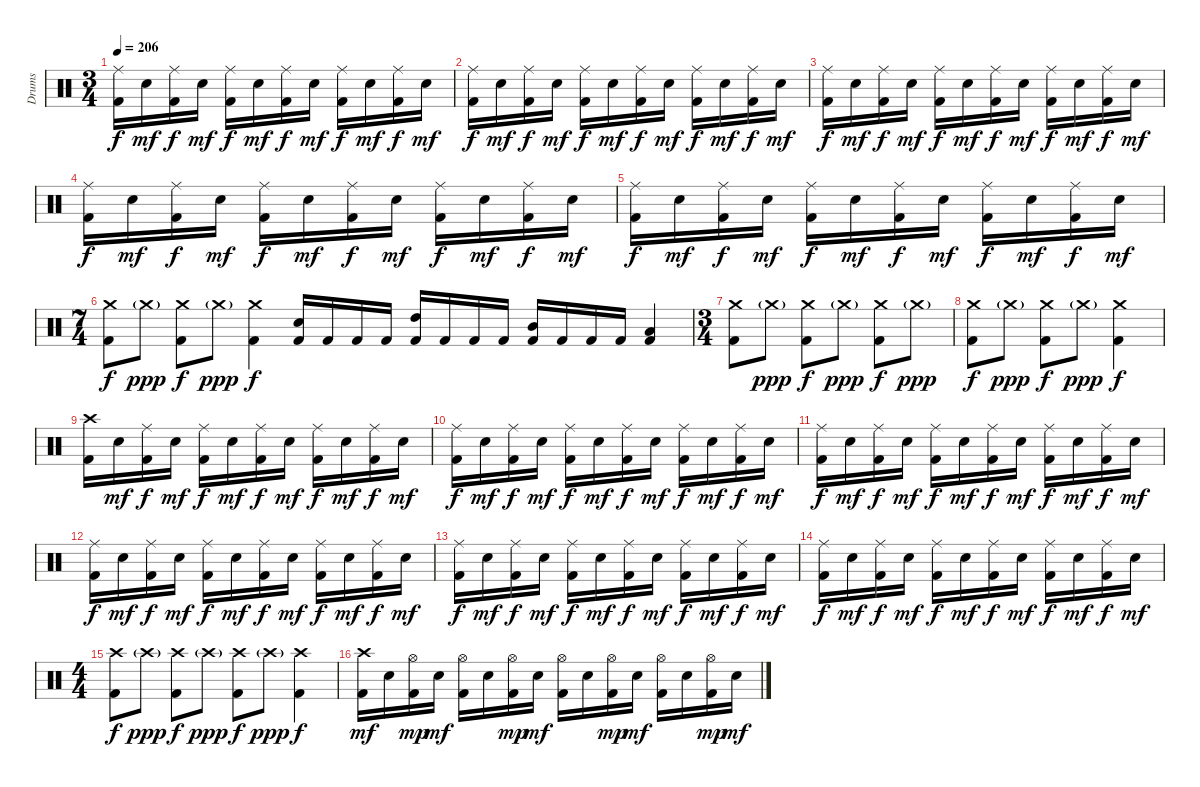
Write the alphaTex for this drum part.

\track ("Drums" "Drums") {instrument percussion}
\staff {score}
\articulation defaults
\ts (3 4)
\tempo 206
\clef neutral
\ks c
("Ride (middle)" "Kick (hit) 2").16{dy f} "Electric Snare (hit)".16{dy mf} ("Ride (middle)" "Kick (hit) 2").16{dy f} "Electric Snare (hit)".16{dy mf} ("Ride (middle)" "Kick (hit) 2").16{dy f} "Electric Snare (hit)".16{dy mf} ("Ride (middle)" "Kick (hit) 2").16{dy f} "Electric Snare (hit)".16{dy mf} ("Ride (middle)" "Kick (hit) 2").16{dy f} "Electric Snare (hit)".16{dy mf} ("Ride (middle)" "Kick (hit) 2").16{dy f} "Electric Snare (hit)".16{dy mf} |
("Ride (middle)" "Kick (hit) 2").16{dy f} "Electric Snare (hit)".16{dy mf} ("Ride (middle)" "Kick (hit) 2").16{dy f} "Electric Snare (hit)".16{dy mf} ("Ride (middle)" "Kick (hit) 2").16{dy f} "Electric Snare (hit)".16{dy mf} ("Ride (middle)" "Kick (hit) 2").16{dy f} "Electric Snare (hit)".16{dy mf} ("Ride (middle)" "Kick (hit) 2").16{dy f} "Electric Snare (hit)".16{dy mf} ("Ride (middle)" "Kick (hit) 2").16{dy f} "Electric Snare (hit)".16{dy mf} |
("Ride (middle)" "Kick (hit) 2").16{dy f} "Electric Snare (hit)".16{dy mf} ("Ride (middle)" "Kick (hit) 2").16{dy f} "Electric Snare (hit)".16{dy mf} ("Ride (middle)" "Kick (hit) 2").16{dy f} "Electric Snare (hit)".16{dy mf} ("Ride (middle)" "Kick (hit) 2").16{dy f} "Electric Snare (hit)".16{dy mf} ("Ride (middle)" "Kick (hit) 2").16{dy f} "Electric Snare (hit)".16{dy mf} ("Ride (middle)" "Kick (hit) 2").16{dy f} "Electric Snare (hit)".16{dy mf} |
("Ride (middle)" "Kick (hit) 2").16{dy f} "Electric Snare (hit)".16{dy mf} ("Ride (middle)" "Kick (hit) 2").16{dy f} "Electric Snare (hit)".16{dy mf} ("Ride (middle)" "Kick (hit) 2").16{dy f} "Electric Snare (hit)".16{dy mf} ("Ride (middle)" "Kick (hit) 2").16{dy f} "Electric Snare (hit)".16{dy mf} ("Ride (middle)" "Kick (hit) 2").16{dy f} "Electric Snare (hit)".16{dy mf} ("Ride (middle)" "Kick (hit) 2").16{dy f} "Electric Snare (hit)".16{dy mf} |
("Ride (middle)" "Kick (hit) 2").16{dy f} "Electric Snare (hit)".16{dy mf} ("Ride (middle)" "Kick (hit) 2").16{dy f} "Electric Snare (hit)".16{dy mf} ("Ride (middle)" "Kick (hit) 2").16{dy f} "Electric Snare (hit)".16{dy mf} ("Ride (middle)" "Kick (hit) 2").16{dy f} "Electric Snare (hit)".16{dy mf} ("Ride (middle)" "Kick (hit) 2").16{dy f} "Electric Snare (hit)".16{dy mf} ("Ride (middle)" "Kick (hit) 2").16{dy f} "Electric Snare (hit)".16{dy mf} |
\ts (7 4)
("Crash medium (hit)" "Kick (hit) 2").8{dy f} "Crash medium (hit)"{g}.8{dy ppp} ("Crash medium (hit)" "Kick (hit) 2").8{dy f} "Crash medium (hit)"{g}.8{dy ppp} ("Crash medium (hit)" "Kick (hit) 2").4{dy f} ("Electric Snare (hit)" "Kick (hit) 2").16 "Kick (hit) 2".16 "Kick (hit) 2".16 "Kick (hit) 2".16 ("High Tom (hit)" "Kick (hit) 2").16 "Kick (hit) 2".16 "Kick (hit) 2".16 "Kick (hit) 2".16 ("Mid Tom (hit)" "Kick (hit) 2").16 "Kick (hit) 2".16 "Kick (hit) 2".16 "Kick (hit) 2".16 ("Low Tom (hit)" "Kick (hit) 2").4 |
\ts (3 4)
("Crash medium (hit)" "Kick (hit) 2").8 "Crash medium (hit)"{g}.8{dy ppp} ("Crash medium (hit)" "Kick (hit) 2").8{dy f} "Crash medium (hit)"{g}.8{dy ppp} ("Crash medium (hit)" "Kick (hit) 2").8{dy f} "Crash medium (hit)"{g}.8{dy ppp} |
("Crash medium (hit)" "Kick (hit) 2").8{dy f} "Crash medium (hit)"{g}.8{dy ppp} ("Crash medium (hit)" "Kick (hit) 2").8{dy f} "Crash medium (hit)"{g}.8{dy ppp} ("Crash medium (hit)" "Kick (hit) 2").4{dy f} |
("Crash high (hit)" "Kick (hit) 2").16 "Electric Snare (hit)".16{dy mf} ("Ride (middle)" "Kick (hit) 2").16{dy f} "Electric Snare (hit)".16{dy mf} ("Ride (middle)" "Kick (hit) 2").16{dy f} "Electric Snare (hit)".16{dy mf} ("Ride (middle)" "Kick (hit) 2").16{dy f} "Electric Snare (hit)".16{dy mf} ("Ride (middle)" "Kick (hit) 2").16{dy f} "Electric Snare (hit)".16{dy mf} ("Ride (middle)" "Kick (hit) 2").16{dy f} "Electric Snare (hit)".16{dy mf} |
("Ride (middle)" "Kick (hit) 2").16{dy f} "Electric Snare (hit)".16{dy mf} ("Ride (middle)" "Kick (hit) 2").16{dy f} "Electric Snare (hit)".16{dy mf} ("Ride (middle)" "Kick (hit) 2").16{dy f} "Electric Snare (hit)".16{dy mf} ("Ride (middle)" "Kick (hit) 2").16{dy f} "Electric Snare (hit)".16{dy mf} ("Ride (middle)" "Kick (hit) 2").16{dy f} "Electric Snare (hit)".16{dy mf} ("Ride (middle)" "Kick (hit) 2").16{dy f} "Electric Snare (hit)".16{dy mf} |
("Ride (middle)" "Kick (hit) 2").16{dy f} "Electric Snare (hit)".16{dy mf} ("Ride (middle)" "Kick (hit) 2").16{dy f} "Electric Snare (hit)".16{dy mf} ("Ride (middle)" "Kick (hit) 2").16{dy f} "Electric Snare (hit)".16{dy mf} ("Ride (middle)" "Kick (hit) 2").16{dy f} "Electric Snare (hit)".16{dy mf} ("Ride (middle)" "Kick (hit) 2").16{dy f} "Electric Snare (hit)".16{dy mf} ("Ride (middle)" "Kick (hit) 2").16{dy f} "Electric Snare (hit)".16{dy mf} |
("Ride (middle)" "Kick (hit) 2").16{dy f} "Electric Snare (hit)".16{dy mf} ("Ride (middle)" "Kick (hit) 2").16{dy f} "Electric Snare (hit)".16{dy mf} ("Ride (middle)" "Kick (hit) 2").16{dy f} "Electric Snare (hit)".16{dy mf} ("Ride (middle)" "Kick (hit) 2").16{dy f} "Electric Snare (hit)".16{dy mf} ("Ride (middle)" "Kick (hit) 2").16{dy f} "Electric Snare (hit)".16{dy mf} ("Ride (middle)" "Kick (hit) 2").16{dy f} "Electric Snare (hit)".16{dy mf} |
("Ride (middle)" "Kick (hit) 2").16{dy f} "Electric Snare (hit)".16{dy mf} ("Ride (middle)" "Kick (hit) 2").16{dy f} "Electric Snare (hit)".16{dy mf} ("Ride (middle)" "Kick (hit) 2").16{dy f} "Electric Snare (hit)".16{dy mf} ("Ride (middle)" "Kick (hit) 2").16{dy f} "Electric Snare (hit)".16{dy mf} ("Ride (middle)" "Kick (hit) 2").16{dy f} "Electric Snare (hit)".16{dy mf} ("Ride (middle)" "Kick (hit) 2").16{dy f} "Electric Snare (hit)".16{dy mf} |
("Ride (middle)" "Kick (hit) 2").16{dy f} "Electric Snare (hit)".16{dy mf} ("Ride (middle)" "Kick (hit) 2").16{dy f} "Electric Snare (hit)".16{dy mf} ("Ride (middle)" "Kick (hit) 2").16{dy f} "Electric Snare (hit)".16{dy mf} ("Ride (middle)" "Kick (hit) 2").16{dy f} "Electric Snare (hit)".16{dy mf} ("Ride (middle)" "Kick (hit) 2").16{dy f} "Electric Snare (hit)".16{dy mf} ("Ride (middle)" "Kick (hit) 2").16{dy f} "Electric Snare (hit)".16{dy mf} |
\ts (4 4)
("Crash high (hit)" "Kick (hit) 2").8{dy f} "Crash high (hit)"{g}.8{dy ppp} ("Crash high (hit)" "Kick (hit) 2").8{dy f} "Crash high (hit)"{g}.8{dy ppp} ("Crash high (hit)" "Kick (hit) 2").8{dy f} "Crash high (hit)"{g}.8{dy ppp} ("Crash high (hit)" "Kick (hit) 2").4{dy f} |
("Crash high (hit)" "Kick (hit) 2").16{dy mf} "Electric Snare (hit)".16 ("Hi-Hat (open)" "Kick (hit) 2").16{dy mp} "Electric Snare (hit)".16{dy mf} ("Hi-Hat (open)" "Kick (hit) 2").16 "Electric Snare (hit)".16 ("Hi-Hat (open)" "Kick (hit) 2").16{dy mp} "Electric Snare (hit)".16{dy mf} ("Hi-Hat (open)" "Kick (hit) 2").16 "Electric Snare (hit)".16 ("Hi-Hat (open)" "Kick (hit) 2").16{dy mp} "Electric Snare (hit)".16{dy mf} ("Hi-Hat (open)" "Kick (hit) 2").16 "Electric Snare (hit)".16 ("Hi-Hat (open)" "Kick (hit) 2").16{dy mp} "Electric Snare (hit)".16{dy mf}
